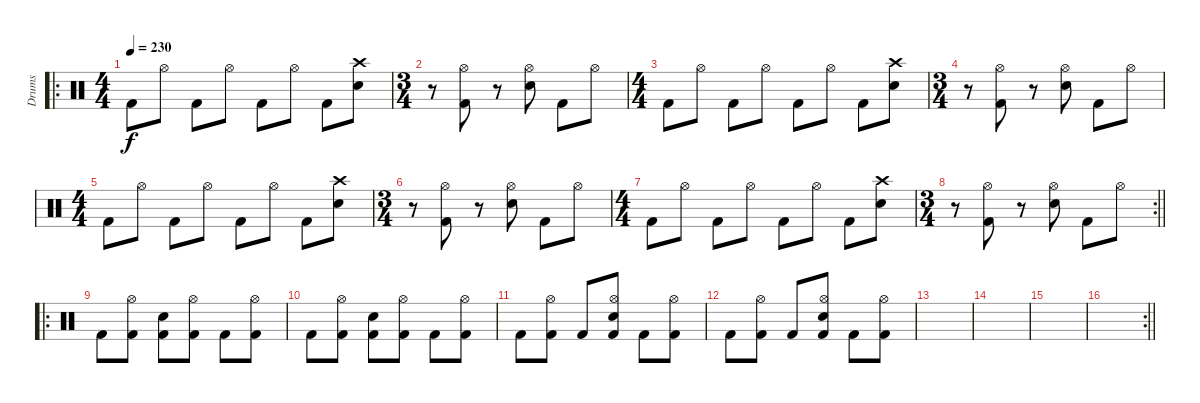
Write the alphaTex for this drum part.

\track ("Drums" "Drums") {instrument percussion}
\staff {score}
\articulation defaults
\ro
\ts (4 4)
\tempo 230
\clef neutral
\ks c "Kick (hit) 2".8{dy f} "Hi-Hat (open)".8 "Kick (hit) 2".8 "Hi-Hat (open)".8 "Kick (hit) 2".8 "Hi-Hat (open)".8 "Kick (hit) 2".8
("Crash high (hit)" "Electric Snare (hit)").8 |
\ts (3 4)
r.8 ("Hi-Hat (open)" "Kick (hit) 2").8 r.8 ("Hi-Hat (open)" "Electric Snare (hit)").8 "Kick (hit) 2".8 "Hi-Hat (open)".8 |
\ts (4 4)
"Kick (hit) 2".8 "Hi-Hat (open)".8 "Kick (hit) 2".8 "Hi-Hat (open)".8 "Kick (hit) 2".8 "Hi-Hat (open)".8 "Kick (hit) 2".8 ("Crash high (hit)" "Electric Snare (hit)").8 |
\ts (3 4)
r.8 ("Hi-Hat (open)" "Kick (hit) 2").8 r.8 ("Hi-Hat (open)" "Electric Snare (hit)").8 "Kick (hit) 2".8 "Hi-Hat (open)".8 |
\ts (4 4)
"Kick (hit) 2".8 "Hi-Hat (open)".8 "Kick (hit) 2".8 "Hi-Hat (open)".8 "Kick (hit) 2".8 "Hi-Hat (open)".8 "Kick (hit) 2".8 ("Crash high (hit)" "Electric Snare (hit)").8 |
\ts (3 4)
r.8 ("Hi-Hat (open)" "Kick (hit) 2").8 r.8 ("Hi-Hat (open)" "Electric Snare (hit)").8 "Kick (hit) 2".8 "Hi-Hat (open)".8 |
\ts (4 4)
"Kick (hit) 2".8 "Hi-Hat (open)".8 "Kick (hit) 2".8 "Hi-Hat (open)".8 "Kick (hit) 2".8 "Hi-Hat (open)".8 "Kick (hit) 2".8 ("Crash high (hit)" "Electric Snare (hit)").8 |
\rc 2
\ts (3 4)
\barLineRight lightlight
r.8 ("Hi-Hat (open)" "Kick (hit) 2").8 r.8 ("Hi-Hat (open)" "Electric Snare (hit)").8 "Kick (hit) 2".8 "Hi-Hat (open)".8 |
\ro
\section ("" "")
"Kick (hit) 2".8 ("Hi-Hat (open)" "Kick (hit) 2").8 ("Electric Snare (hit)" "Kick (hit) 2").8 ("Hi-Hat (open)" "Kick (hit) 2").8 "Kick (hit) 2".8 ("Hi-Hat (open)" "Kick (hit) 2").8 |
"Kick (hit) 2".8 ("Hi-Hat (open)" "Kick (hit) 2").8 ("Electric Snare (hit)" "Kick (hit) 2").8 ("Hi-Hat (open)" "Kick (hit) 2").8 "Kick (hit) 2".8 ("Hi-Hat (open)" "Kick (hit) 2").8 |
"Kick (hit) 2".8 ("Hi-Hat (open)" "Kick (hit) 2").8 "Kick (hit) 2".8 ("Hi-Hat (open)" "Electric Snare (hit)" "Kick (hit) 2").8 "Kick (hit) 2".8 ("Hi-Hat (open)" "Kick (hit) 2").8 |
"Kick (hit) 2".8 ("Hi-Hat (open)" "Kick (hit) 2").8 "Kick (hit) 2".8 ("Hi-Hat (open)" "Electric Snare (hit)" "Kick (hit) 2").8 "Kick (hit) 2".8 ("Hi-Hat (open)" "Kick (hit) 2").8 |
|
|
|
\rc 2
\barLineRight lightlight
